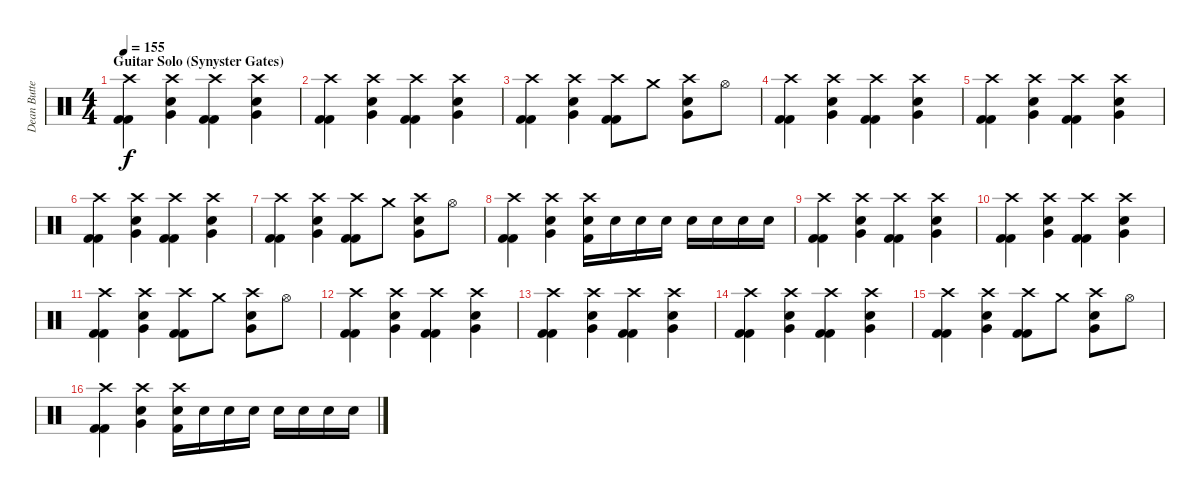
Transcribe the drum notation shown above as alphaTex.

\track ("Dean Butterworth [Drums]" "Dean Butte") {solo instrument percussion}
\staff {score}
\articulation defaults
\ts (4 4)
\section ("" "Guitar Solo (Synyster Gates)")
\tempo 155
\clef neutral
\ks c
("Crash high (hit)" "Kick (hit) 2" "Kick (hit) 2").4{dy f} ("Crash high (hit)" "Very Low Tom (hit)" "Electric Snare (hit)").4 ("Crash high (hit)" "Kick (hit) 2" "Kick (hit) 2").4 ("Crash high (hit)" "Very Low Tom (hit)" "Electric Snare (hit)").4 |
("Crash high (hit)" "Kick (hit) 2" "Kick (hit) 2").4 ("Crash high (hit)" "Very Low Tom (hit)" "Electric Snare (hit)").4 ("Crash high (hit)" "Kick (hit) 2" "Kick (hit) 2").4 ("Crash high (hit)" "Very Low Tom (hit)" "Electric Snare (hit)").4 |
("Crash high (hit)" "Kick (hit) 2" "Kick (hit) 2").4 ("Crash high (hit)" "Very Low Tom (hit)" "Electric Snare (hit)").4 ("Crash high (hit)" "Kick (hit) 2" "Kick (hit) 2").8 "Crash medium (hit)".8 ("Crash high (hit)" "Very Low Tom (hit)" "Electric Snare (hit)").8 "Hi-Hat (open)".8 |
("Crash high (hit)" "Kick (hit) 2" "Kick (hit) 2").4 ("Crash high (hit)" "Very Low Tom (hit)" "Electric Snare (hit)").4 ("Crash high (hit)" "Kick (hit) 2" "Kick (hit) 2").4 ("Crash high (hit)" "Very Low Tom (hit)" "Electric Snare (hit)").4 |
("Crash high (hit)" "Kick (hit) 2" "Kick (hit) 2").4 ("Crash high (hit)" "Very Low Tom (hit)" "Electric Snare (hit)").4 ("Crash high (hit)" "Kick (hit) 2" "Kick (hit) 2").4 ("Crash high (hit)" "Very Low Tom (hit)" "Electric Snare (hit)").4 |
("Crash high (hit)" "Kick (hit) 2" "Kick (hit) 2").4 ("Crash high (hit)" "Very Low Tom (hit)" "Electric Snare (hit)").4 ("Crash high (hit)" "Kick (hit) 2" "Kick (hit) 2").4 ("Crash high (hit)" "Very Low Tom (hit)" "Electric Snare (hit)").4 |
("Crash high (hit)" "Kick (hit) 2" "Kick (hit) 2").4 ("Crash high (hit)" "Very Low Tom (hit)" "Electric Snare (hit)").4 ("Crash high (hit)" "Kick (hit) 2" "Kick (hit) 2").8 "Crash medium (hit)".8 ("Crash high (hit)" "Very Low Tom (hit)" "Electric Snare (hit)").8 "Hi-Hat (open)".8 |
("Crash high (hit)" "Kick (hit) 2" "Kick (hit) 2").4 ("Crash high (hit)" "Very Low Tom (hit)" "Electric Snare (hit)").4 ("Crash high (hit)" "Electric Snare (hit)" "Kick (hit) 2").16 "Electric Snare (hit)".16 "Electric Snare (hit)".16 "Electric Snare (hit)".16 "Electric Snare (hit)".16 "Electric Snare (hit)".16 "Electric Snare (hit)".16 "Electric Snare (hit)".16 |
("Crash high (hit)" "Kick (hit) 2" "Kick (hit) 2").4 ("Crash high (hit)" "Very Low Tom (hit)" "Electric Snare (hit)").4 ("Crash high (hit)" "Kick (hit) 2" "Kick (hit) 2").4 ("Crash high (hit)" "Very Low Tom (hit)" "Electric Snare (hit)").4 |
("Crash high (hit)" "Kick (hit) 2" "Kick (hit) 2").4 ("Crash high (hit)" "Very Low Tom (hit)" "Electric Snare (hit)").4 ("Crash high (hit)" "Kick (hit) 2" "Kick (hit) 2").4 ("Crash high (hit)" "Very Low Tom (hit)" "Electric Snare (hit)").4 |
("Crash high (hit)" "Kick (hit) 2" "Kick (hit) 2").4 ("Crash high (hit)" "Very Low Tom (hit)" "Electric Snare (hit)").4 ("Crash high (hit)" "Kick (hit) 2" "Kick (hit) 2").8 "Crash medium (hit)".8 ("Crash high (hit)" "Very Low Tom (hit)" "Electric Snare (hit)").8 "Hi-Hat (open)".8 |
("Crash high (hit)" "Kick (hit) 2" "Kick (hit) 2").4 ("Crash high (hit)" "Very Low Tom (hit)" "Electric Snare (hit)").4 ("Crash high (hit)" "Kick (hit) 2" "Kick (hit) 2").4 ("Crash high (hit)" "Very Low Tom (hit)" "Electric Snare (hit)").4 |
("Crash high (hit)" "Kick (hit) 2" "Kick (hit) 2").4 ("Crash high (hit)" "Very Low Tom (hit)" "Electric Snare (hit)").4 ("Crash high (hit)" "Kick (hit) 2" "Kick (hit) 2").4 ("Crash high (hit)" "Very Low Tom (hit)" "Electric Snare (hit)").4 |
("Crash high (hit)" "Kick (hit) 2" "Kick (hit) 2").4 ("Crash high (hit)" "Very Low Tom (hit)" "Electric Snare (hit)").4 ("Crash high (hit)" "Kick (hit) 2" "Kick (hit) 2").4 ("Crash high (hit)" "Very Low Tom (hit)" "Electric Snare (hit)").4 |
("Crash high (hit)" "Kick (hit) 2" "Kick (hit) 2").4 ("Crash high (hit)" "Very Low Tom (hit)" "Electric Snare (hit)").4 ("Crash high (hit)" "Kick (hit) 2" "Kick (hit) 2").8 "Crash medium (hit)".8 ("Crash high (hit)" "Very Low Tom (hit)" "Electric Snare (hit)").8 "Hi-Hat (open)".8 |
("Crash high (hit)" "Kick (hit) 2" "Kick (hit) 2").4 ("Crash high (hit)" "Very Low Tom (hit)" "Electric Snare (hit)").4 ("Crash high (hit)" "Electric Snare (hit)" "Kick (hit) 2").16 "Electric Snare (hit)".16 "Electric Snare (hit)".16 "Electric Snare (hit)".16 "Electric Snare (hit)".16 "Electric Snare (hit)".16 "Electric Snare (hit)".16 "Electric Snare (hit)".16
